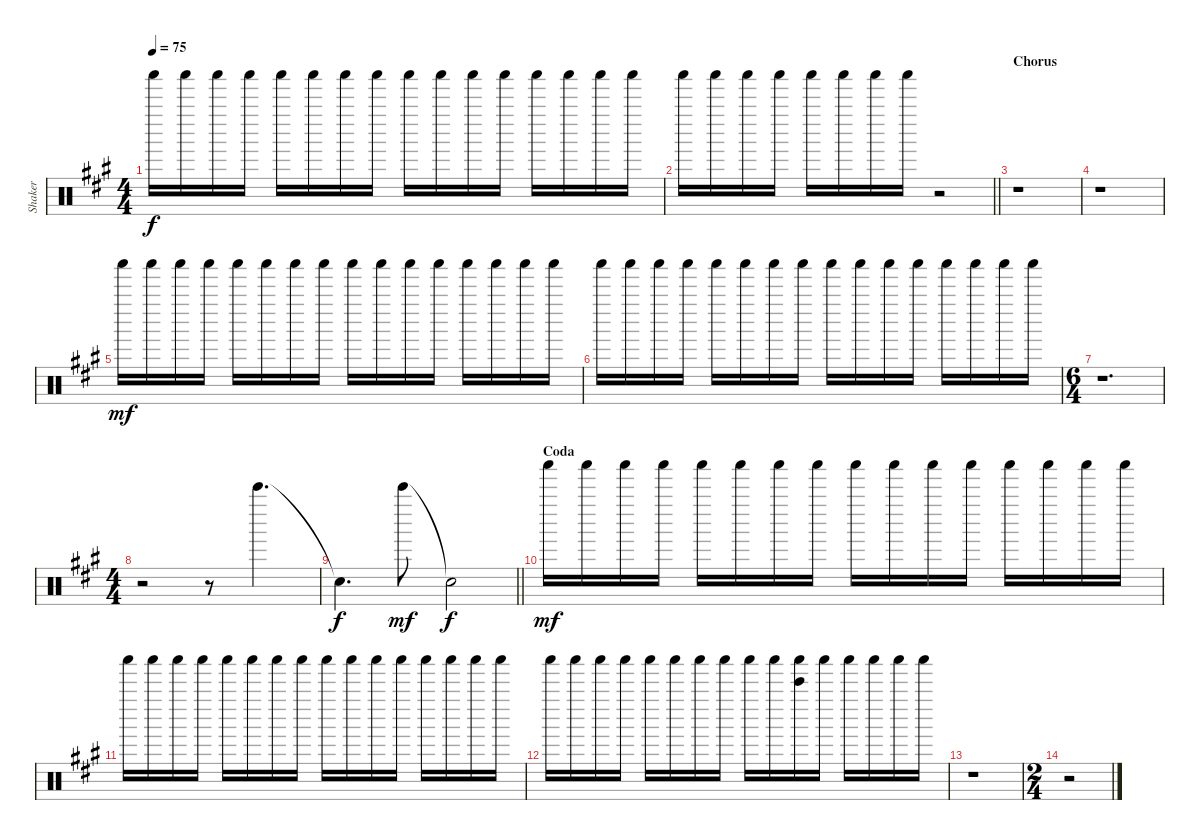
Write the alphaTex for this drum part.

\track ("Shaker" "Shaker") {instrument percussion}
\staff {score}
\articulation defaults
\ts (4 4)
\tempo 75
\clef neutral
\ks f#minor "Shaker (hit)".16{dy f} "Shaker (hit)".16 "Shaker (hit)".16 "Shaker (hit)".16 "Shaker (hit)".16 "Shaker (hit)".16 "Shaker (hit)".16 "Shaker (hit)".16 "Shaker (hit)".16 "Shaker (hit)".16 "Shaker (hit)".16 "Shaker (hit)".16 "Shaker (hit)".16 "Shaker (hit)".16 "Shaker (hit)".16 "Shaker (hit)".16
|
\barLineRight lightlight "Shaker (hit)".16 "Shaker (hit)".16 "Shaker (hit)".16 "Shaker (hit)".16 "Shaker (hit)".16 "Shaker (hit)".16 "Shaker (hit)".16 "Shaker (hit)".16
r.2 |
\section ("" "Chorus")
r.1 |
r.1 |
"Shaker (hit)".16{dy mf} "Shaker (hit)".16 "Shaker (hit)".16 "Shaker (hit)".16 "Shaker (hit)".16 "Shaker (hit)".16 "Shaker (hit)".16 "Shaker (hit)".16 "Shaker (hit)".16 "Shaker (hit)".16 "Shaker (hit)".16 "Shaker (hit)".16 "Shaker (hit)".16 "Shaker (hit)".16 "Shaker (hit)".16 "Shaker (hit)".16 |
"Shaker (hit)".16 "Shaker (hit)".16 "Shaker (hit)".16 "Shaker (hit)".16 "Shaker (hit)".16 "Shaker (hit)".16 "Shaker (hit)".16 "Shaker (hit)".16 "Shaker (hit)".16 "Shaker (hit)".16 "Shaker (hit)".16 "Shaker (hit)".16 "Shaker (hit)".16 "Shaker (hit)".16 "Shaker (hit)".16 "Shaker (hit)".16 |
\ts (6 4)
r.1{d} |
\ts (4 4)
r.2 r.8 "Bell Tree (hit)".4{d} |
\barLineRight lightlight "Snare (hit)"{t}.4{d dy f} "Bell Tree (hit)".8{dy mf} "Snare (hit)"{t}.2{dy f}
|
\section ("" "Coda")
"Shaker (hit)".16{dy mf} "Shaker (hit)".16 "Shaker (hit)".16 "Shaker (hit)".16 "Shaker (hit)".16 "Shaker (hit)".16 "Shaker (hit)".16 "Shaker (hit)".16 "Shaker (hit)".16 "Shaker (hit)".16 "Shaker (hit)".16 "Shaker (hit)".16 "Shaker (hit)".16 "Shaker (hit)".16 "Shaker (hit)".16 "Shaker (hit)".16 |
"Shaker (hit)".16 "Shaker (hit)".16 "Shaker (hit)".16 "Shaker (hit)".16 "Shaker (hit)".16 "Shaker (hit)".16 "Shaker (hit)".16 "Shaker (hit)".16 "Shaker (hit)".16 "Shaker (hit)".16 "Shaker (hit)".16 "Shaker (hit)".16 "Shaker (hit)".16 "Shaker (hit)".16 "Shaker (hit)".16 "Shaker (hit)".16 |
"Shaker (hit)".16 "Shaker (hit)".16 "Shaker (hit)".16 "Shaker (hit)".16 "Shaker (hit)".16 "Shaker (hit)".16 "Shaker (hit)".16 "Shaker (hit)".16 "Shaker (hit)".16 "Shaker (hit)".16 ("Shaker (hit)" "Bell Tree (hit)").16 "Shaker (hit)".16 "Shaker (hit)".16 "Shaker (hit)".16 "Shaker (hit)".16 "Shaker (hit)".16 |
r.1 |
\ts (2 4)
r.2
